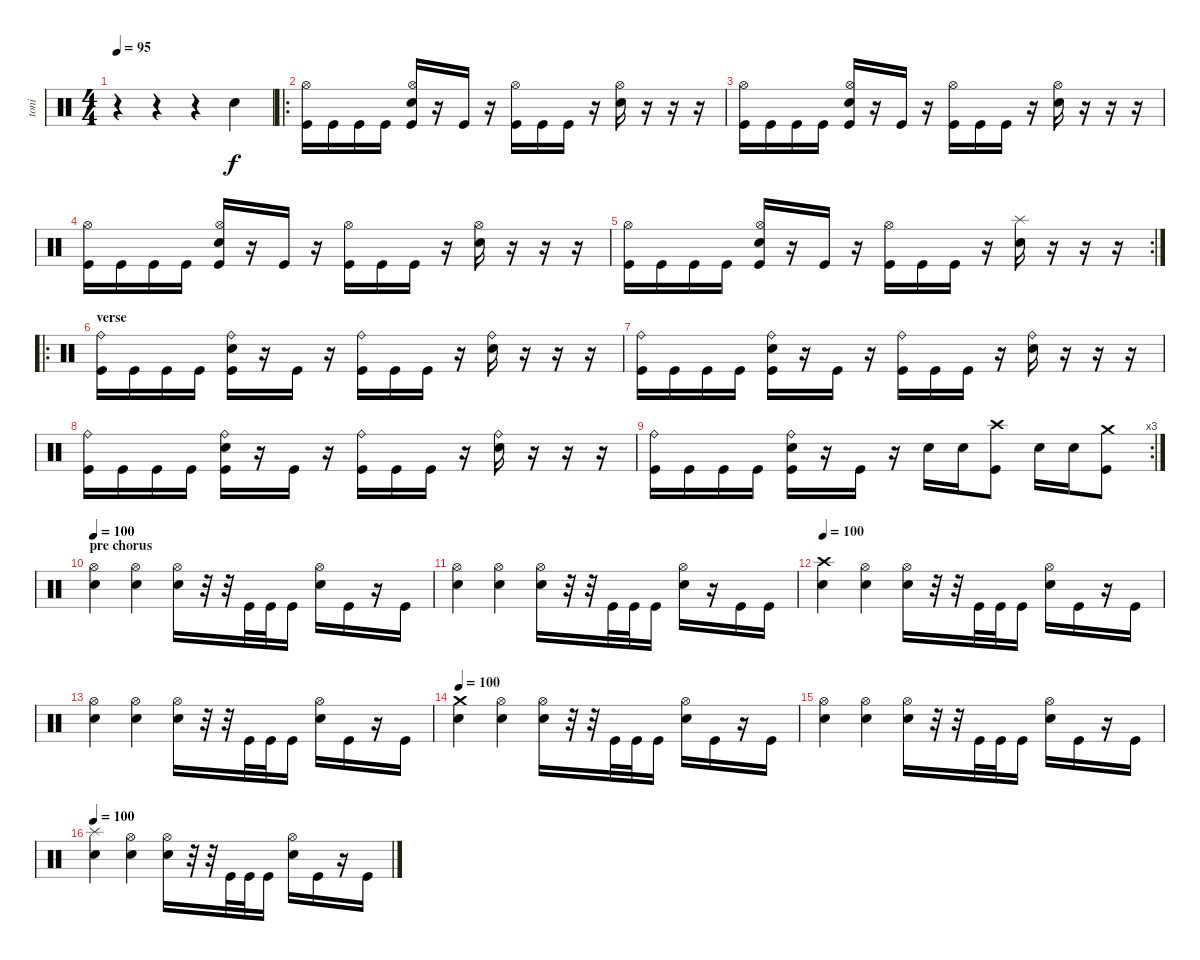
\track ("toni" "toni") {instrument percussion}
\staff {score}
\articulation defaults
\ts (4 4)
\tempo 95
\clef neutral
\ks c
r.4{dy f} r.4 r.4 "Snare (hit) 2".4 |
\ro
("Hi-Hat (open)" "Kick (hit)").16 "Kick (hit)".16 "Kick (hit)".16 "Kick (hit)".16 ("Hi-Hat (open)" "Snare (hit) 2" "Kick (hit)").16 r.16 "Kick (hit)".16 r.16 ("Hi-Hat (open)" "Kick (hit)").16 "Kick (hit)".16 "Kick (hit)".16 r.16 ("Hi-Hat (open)" "Snare (hit) 2").16 r.16 r.16 r.16 |
("Hi-Hat (open)" "Kick (hit)").16 "Kick (hit)".16 "Kick (hit)".16 "Kick (hit)".16 ("Hi-Hat (open)" "Snare (hit) 2" "Kick (hit)").16 r.16 "Kick (hit)".16 r.16 ("Hi-Hat (open)" "Kick (hit)").16 "Kick (hit)".16 "Kick (hit)".16 r.16 ("Hi-Hat (open)" "Snare (hit) 2").16 r.16 r.16 r.16 |
("Hi-Hat (open)" "Kick (hit)").16 "Kick (hit)".16 "Kick (hit)".16 "Kick (hit)".16 ("Hi-Hat (open)" "Snare (hit) 2" "Kick (hit)").16 r.16 "Kick (hit)".16 r.16 ("Hi-Hat (open)" "Kick (hit)").16 "Kick (hit)".16 "Kick (hit)".16 r.16 ("Hi-Hat (open)" "Snare (hit) 2").16 r.16 r.16 r.16 |
\rc 2
("Hi-Hat (open)" "Kick (hit)").16 "Kick (hit)".16 "Kick (hit)".16 "Kick (hit)".16 ("Hi-Hat (open)" "Snare (hit) 2" "Kick (hit)").16 r.16 "Kick (hit)".16 r.16 ("Hi-Hat (open)" "Kick (hit)").16 "Kick (hit)".16 "Kick (hit)".16 r.16 ("Splash (hit)" "Snare (hit) 2").16 r.16 r.16 r.16 |
\ro
\section ("" "verse")
("Ride (bell)" "Kick (hit)").16 "Kick (hit)".16 "Kick (hit)".16 "Kick (hit)".16 ("Ride (bell)" "Snare (hit) 2" "Kick (hit)").16 r.16 "Kick (hit)".16 r.16 ("Ride (bell)" "Kick (hit)").16 "Kick (hit)".16 "Kick (hit)".16 r.16 ("Ride (bell)" "Snare (hit) 2").16 r.16 r.16 r.16 |
("Ride (bell)" "Kick (hit)").16 "Kick (hit)".16 "Kick (hit)".16 "Kick (hit)".16 ("Ride (bell)" "Snare (hit) 2" "Kick (hit)").16 r.16 "Kick (hit)".16 r.16 ("Ride (bell)" "Kick (hit)").16 "Kick (hit)".16 "Kick (hit)".16 r.16 ("Ride (bell)" "Snare (hit) 2").16 r.16 r.16 r.16 |
("Ride (bell)" "Kick (hit)").16 "Kick (hit)".16 "Kick (hit)".16 "Kick (hit)".16 ("Ride (bell)" "Snare (hit) 2" "Kick (hit)").16 r.16 "Kick (hit)".16 r.16 ("Ride (bell)" "Kick (hit)").16 "Kick (hit)".16 "Kick (hit)".16 r.16 ("Ride (bell)" "Snare (hit) 2").16 r.16 r.16 r.16 |
\rc 3
("Ride (bell)" "Kick (hit)").16 "Kick (hit)".16 "Kick (hit)".16 "Kick (hit)".16 ("Ride (bell)" "Snare (hit) 2" "Kick (hit)").16 r.16 "Kick (hit)".16 r.16 "Snare (hit) 2".16 "Snare (hit) 2".16 ("Crash high (hit)" "Kick (hit)").8 "Snare (hit) 2".16 "Snare (hit) 2".16 ("Crash medium (hit)" "Kick (hit)").8 |
\section ("" "pre chorus")
\tempo 100
("Hi-Hat (open)" "Snare (hit) 2").4 ("Hi-Hat (open)" "Snare (hit) 2").4 ("Hi-Hat (open)" "Snare (hit) 2").16 r.32 r.32 "Kick (hit)".32 "Kick (hit)".32 "Kick (hit)".16 ("Hi-Hat (open)" "Snare (hit) 2").16 "Kick (hit)".16 r.16 "Kick (hit)".16 |
("Hi-Hat (open)" "Snare (hit) 2").4 ("Hi-Hat (open)" "Snare (hit) 2").4 ("Hi-Hat (open)" "Snare (hit) 2").16 r.32 r.32 "Kick (hit)".32 "Kick (hit)".32 "Kick (hit)".16 ("Hi-Hat (open)" "Snare (hit) 2").16 r.16 "Kick (hit)".16 "Kick (hit)".16 |
\tempo 100
("Crash high (hit)" "Snare (hit) 2").4 ("Hi-Hat (open)" "Snare (hit) 2").4 ("Hi-Hat (open)" "Snare (hit) 2").16 r.32 r.32 "Kick (hit)".32 "Kick (hit)".32 "Kick (hit)".16 ("Hi-Hat (open)" "Snare (hit) 2").16 "Kick (hit)".16 r.16 "Kick (hit)".16 |
("Hi-Hat (open)" "Snare (hit) 2").4 ("Hi-Hat (open)" "Snare (hit) 2").4 ("Hi-Hat (open)" "Snare (hit) 2").16 r.32 r.32 "Kick (hit)".32 "Kick (hit)".32 "Kick (hit)".16 ("Hi-Hat (open)" "Snare (hit) 2").16 "Kick (hit)".16 r.16 "Kick (hit)".16 |
\tempo 100
("Crash medium (hit)" "Snare (hit) 2").4 ("Hi-Hat (open)" "Snare (hit) 2").4 ("Hi-Hat (open)" "Snare (hit) 2").16 r.32 r.32 "Kick (hit)".32 "Kick (hit)".32 "Kick (hit)".16 ("Hi-Hat (open)" "Snare (hit) 2").16 "Kick (hit)".16 r.16 "Kick (hit)".16 |
("Hi-Hat (open)" "Snare (hit) 2").4 ("Hi-Hat (open)" "Snare (hit) 2").4 ("Hi-Hat (open)" "Snare (hit) 2").16 r.32 r.32 "Kick (hit)".32 "Kick (hit)".32 "Kick (hit)".16 ("Hi-Hat (open)" "Snare (hit) 2").16 "Kick (hit)".16 r.16 "Kick (hit)".16 |
\tempo 100
("Splash (hit)" "Snare (hit) 2").4 ("Hi-Hat (open)" "Snare (hit) 2").4 ("Hi-Hat (open)" "Snare (hit) 2").16 r.32 r.32 "Kick (hit)".32 "Kick (hit)".32 "Kick (hit)".16 ("Hi-Hat (open)" "Snare (hit) 2").16 "Kick (hit)".16 r.16 "Kick (hit)".16
